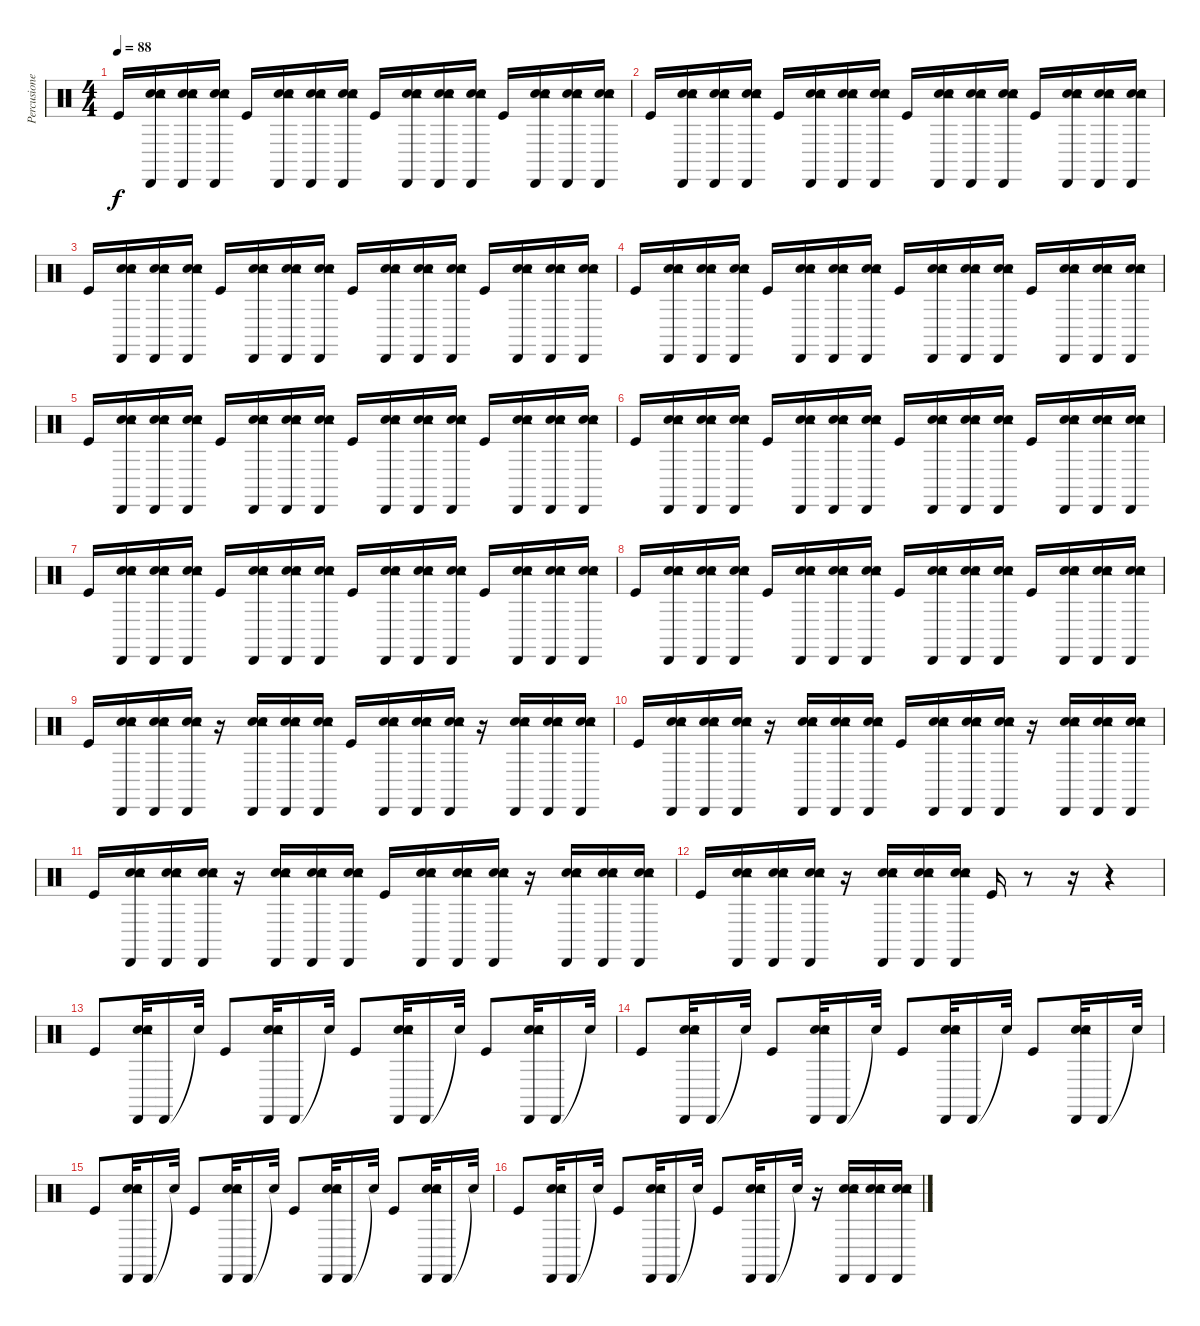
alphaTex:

\track ("Percusiones" "Percusione") {instrument percussion}
\staff {score}
\articulation defaults
\ts (4 4)
\tempo 88
\clef neutral
\ks c "Kick (hit)".16{dy f}
("Electric Snare (hit)" "Tambourine (hit)" "Snare (hit) 2" "Cabasa (hit)").16 ("Electric Snare (hit)" "Tambourine (hit)" "Snare (hit) 2" "Cabasa (hit)").16 ("Electric Snare (hit)" "Tambourine (hit)" "Snare (hit) 2" "Cabasa (hit)").16 "Kick (hit)".16 ("Electric Snare (hit)" "Tambourine (hit)" "Snare (hit) 2" "Cabasa (hit)").16 ("Electric Snare (hit)" "Tambourine (hit)" "Snare (hit) 2" "Cabasa (hit)").16 ("Electric Snare (hit)" "Tambourine (hit)" "Snare (hit) 2" "Cabasa (hit)").16 "Kick (hit)".16 ("Electric Snare (hit)" "Tambourine (hit)" "Snare (hit) 2" "Cabasa (hit)").16 ("Electric Snare (hit)" "Tambourine (hit)" "Snare (hit) 2" "Cabasa (hit)").16 ("Electric Snare (hit)" "Tambourine (hit)" "Snare (hit) 2" "Cabasa (hit)").16 "Kick (hit)".16 ("Electric Snare (hit)" "Tambourine (hit)" "Snare (hit) 2" "Cabasa (hit)").16 ("Electric Snare (hit)" "Tambourine (hit)" "Snare (hit) 2" "Cabasa (hit)").16 ("Electric Snare (hit)" "Tambourine (hit)" "Snare (hit) 2" "Cabasa (hit)").16 |
"Kick (hit)".16 ("Electric Snare (hit)" "Tambourine (hit)" "Snare (hit) 2" "Cabasa (hit)").16 ("Electric Snare (hit)" "Tambourine (hit)" "Snare (hit) 2" "Cabasa (hit)").16 ("Electric Snare (hit)" "Tambourine (hit)" "Snare (hit) 2" "Cabasa (hit)").16 "Kick (hit)".16 ("Electric Snare (hit)" "Tambourine (hit)" "Snare (hit) 2" "Cabasa (hit)").16 ("Electric Snare (hit)" "Tambourine (hit)" "Snare (hit) 2" "Cabasa (hit)").16 ("Electric Snare (hit)" "Tambourine (hit)" "Snare (hit) 2" "Cabasa (hit)").16 "Kick (hit)".16 ("Electric Snare (hit)" "Tambourine (hit)" "Snare (hit) 2" "Cabasa (hit)").16 ("Electric Snare (hit)" "Tambourine (hit)" "Snare (hit) 2" "Cabasa (hit)").16 ("Electric Snare (hit)" "Tambourine (hit)" "Snare (hit) 2" "Cabasa (hit)").16 "Kick (hit)".16 ("Electric Snare (hit)" "Tambourine (hit)" "Snare (hit) 2" "Cabasa (hit)").16 ("Electric Snare (hit)" "Tambourine (hit)" "Snare (hit) 2" "Cabasa (hit)").16 ("Electric Snare (hit)" "Tambourine (hit)" "Snare (hit) 2" "Cabasa (hit)").16 |
"Kick (hit)".16 ("Electric Snare (hit)" "Tambourine (hit)" "Snare (hit) 2" "Cabasa (hit)").16 ("Electric Snare (hit)" "Tambourine (hit)" "Snare (hit) 2" "Cabasa (hit)").16 ("Electric Snare (hit)" "Tambourine (hit)" "Snare (hit) 2" "Cabasa (hit)").16 "Kick (hit)".16 ("Electric Snare (hit)" "Tambourine (hit)" "Snare (hit) 2" "Cabasa (hit)").16 ("Electric Snare (hit)" "Tambourine (hit)" "Snare (hit) 2" "Cabasa (hit)").16 ("Electric Snare (hit)" "Tambourine (hit)" "Snare (hit) 2" "Cabasa (hit)").16 "Kick (hit)".16 ("Electric Snare (hit)" "Tambourine (hit)" "Snare (hit) 2" "Cabasa (hit)").16 ("Electric Snare (hit)" "Tambourine (hit)" "Snare (hit) 2" "Cabasa (hit)").16 ("Electric Snare (hit)" "Tambourine (hit)" "Snare (hit) 2" "Cabasa (hit)").16 "Kick (hit)".16 ("Electric Snare (hit)" "Tambourine (hit)" "Snare (hit) 2" "Cabasa (hit)").16 ("Electric Snare (hit)" "Tambourine (hit)" "Snare (hit) 2" "Cabasa (hit)").16 ("Electric Snare (hit)" "Tambourine (hit)" "Snare (hit) 2" "Cabasa (hit)").16 |
"Kick (hit)".16 ("Electric Snare (hit)" "Tambourine (hit)" "Snare (hit) 2" "Cabasa (hit)").16 ("Electric Snare (hit)" "Tambourine (hit)" "Snare (hit) 2" "Cabasa (hit)").16 ("Electric Snare (hit)" "Tambourine (hit)" "Snare (hit) 2" "Cabasa (hit)").16 "Kick (hit)".16 ("Electric Snare (hit)" "Tambourine (hit)" "Snare (hit) 2" "Cabasa (hit)").16 ("Electric Snare (hit)" "Tambourine (hit)" "Snare (hit) 2" "Cabasa (hit)").16 ("Electric Snare (hit)" "Tambourine (hit)" "Snare (hit) 2" "Cabasa (hit)").16 "Kick (hit)".16 ("Electric Snare (hit)" "Tambourine (hit)" "Snare (hit) 2" "Cabasa (hit)").16 ("Electric Snare (hit)" "Tambourine (hit)" "Snare (hit) 2" "Cabasa (hit)").16 ("Electric Snare (hit)" "Tambourine (hit)" "Snare (hit) 2" "Cabasa (hit)").16 "Kick (hit)".16 ("Electric Snare (hit)" "Tambourine (hit)" "Snare (hit) 2" "Cabasa (hit)").16 ("Electric Snare (hit)" "Tambourine (hit)" "Snare (hit) 2" "Cabasa (hit)").16 ("Electric Snare (hit)" "Tambourine (hit)" "Snare (hit) 2" "Cabasa (hit)").16 |
"Kick (hit)".16 ("Electric Snare (hit)" "Tambourine (hit)" "Snare (hit) 2" "Cabasa (hit)").16 ("Electric Snare (hit)" "Tambourine (hit)" "Snare (hit) 2" "Cabasa (hit)").16 ("Electric Snare (hit)" "Tambourine (hit)" "Snare (hit) 2" "Cabasa (hit)").16 "Kick (hit)".16 ("Electric Snare (hit)" "Tambourine (hit)" "Snare (hit) 2" "Cabasa (hit)").16 ("Electric Snare (hit)" "Tambourine (hit)" "Snare (hit) 2" "Cabasa (hit)").16 ("Electric Snare (hit)" "Tambourine (hit)" "Snare (hit) 2" "Cabasa (hit)").16 "Kick (hit)".16 ("Electric Snare (hit)" "Tambourine (hit)" "Snare (hit) 2" "Cabasa (hit)").16 ("Electric Snare (hit)" "Tambourine (hit)" "Snare (hit) 2" "Cabasa (hit)").16 ("Electric Snare (hit)" "Tambourine (hit)" "Snare (hit) 2" "Cabasa (hit)").16 "Kick (hit)".16 ("Electric Snare (hit)" "Tambourine (hit)" "Snare (hit) 2" "Cabasa (hit)").16 ("Electric Snare (hit)" "Tambourine (hit)" "Snare (hit) 2" "Cabasa (hit)").16 ("Electric Snare (hit)" "Tambourine (hit)" "Snare (hit) 2" "Cabasa (hit)").16 |
"Kick (hit)".16 ("Electric Snare (hit)" "Tambourine (hit)" "Snare (hit) 2" "Cabasa (hit)").16 ("Electric Snare (hit)" "Tambourine (hit)" "Snare (hit) 2" "Cabasa (hit)").16 ("Electric Snare (hit)" "Tambourine (hit)" "Snare (hit) 2" "Cabasa (hit)").16 "Kick (hit)".16 ("Electric Snare (hit)" "Tambourine (hit)" "Snare (hit) 2" "Cabasa (hit)").16 ("Electric Snare (hit)" "Tambourine (hit)" "Snare (hit) 2" "Cabasa (hit)").16 ("Electric Snare (hit)" "Tambourine (hit)" "Snare (hit) 2" "Cabasa (hit)").16 "Kick (hit)".16 ("Electric Snare (hit)" "Tambourine (hit)" "Snare (hit) 2" "Cabasa (hit)").16 ("Electric Snare (hit)" "Tambourine (hit)" "Snare (hit) 2" "Cabasa (hit)").16 ("Electric Snare (hit)" "Tambourine (hit)" "Snare (hit) 2" "Cabasa (hit)").16 "Kick (hit)".16 ("Electric Snare (hit)" "Tambourine (hit)" "Snare (hit) 2" "Cabasa (hit)").16 ("Electric Snare (hit)" "Tambourine (hit)" "Snare (hit) 2" "Cabasa (hit)").16 ("Electric Snare (hit)" "Tambourine (hit)" "Snare (hit) 2" "Cabasa (hit)").16 |
"Kick (hit)".16 ("Electric Snare (hit)" "Tambourine (hit)" "Snare (hit) 2" "Cabasa (hit)").16 ("Electric Snare (hit)" "Tambourine (hit)" "Snare (hit) 2" "Cabasa (hit)").16 ("Electric Snare (hit)" "Tambourine (hit)" "Snare (hit) 2" "Cabasa (hit)").16 "Kick (hit)".16 ("Electric Snare (hit)" "Tambourine (hit)" "Snare (hit) 2" "Cabasa (hit)").16 ("Electric Snare (hit)" "Tambourine (hit)" "Snare (hit) 2" "Cabasa (hit)").16 ("Electric Snare (hit)" "Tambourine (hit)" "Snare (hit) 2" "Cabasa (hit)").16 "Kick (hit)".16 ("Electric Snare (hit)" "Tambourine (hit)" "Snare (hit) 2" "Cabasa (hit)").16 ("Electric Snare (hit)" "Tambourine (hit)" "Snare (hit) 2" "Cabasa (hit)").16 ("Electric Snare (hit)" "Tambourine (hit)" "Snare (hit) 2" "Cabasa (hit)").16 "Kick (hit)".16 ("Electric Snare (hit)" "Tambourine (hit)" "Snare (hit) 2" "Cabasa (hit)").16 ("Electric Snare (hit)" "Tambourine (hit)" "Snare (hit) 2" "Cabasa (hit)").16 ("Electric Snare (hit)" "Tambourine (hit)" "Snare (hit) 2" "Cabasa (hit)").16 |
"Kick (hit)".16 ("Electric Snare (hit)" "Tambourine (hit)" "Snare (hit) 2" "Cabasa (hit)").16 ("Electric Snare (hit)" "Tambourine (hit)" "Snare (hit) 2" "Cabasa (hit)").16 ("Electric Snare (hit)" "Tambourine (hit)" "Snare (hit) 2" "Cabasa (hit)").16 "Kick (hit)".16 ("Electric Snare (hit)" "Tambourine (hit)" "Snare (hit) 2" "Cabasa (hit)").16 ("Electric Snare (hit)" "Tambourine (hit)" "Snare (hit) 2" "Cabasa (hit)").16 ("Electric Snare (hit)" "Tambourine (hit)" "Snare (hit) 2" "Cabasa (hit)").16 "Kick (hit)".16 ("Electric Snare (hit)" "Tambourine (hit)" "Snare (hit) 2" "Cabasa (hit)").16 ("Electric Snare (hit)" "Tambourine (hit)" "Snare (hit) 2" "Cabasa (hit)").16 ("Electric Snare (hit)" "Tambourine (hit)" "Snare (hit) 2" "Cabasa (hit)").16 "Kick (hit)".16 ("Electric Snare (hit)" "Tambourine (hit)" "Snare (hit) 2" "Cabasa (hit)").16 ("Electric Snare (hit)" "Tambourine (hit)" "Snare (hit) 2" "Cabasa (hit)").16 ("Electric Snare (hit)" "Tambourine (hit)" "Snare (hit) 2" "Cabasa (hit)").16 |
"Kick (hit)".16 ("Electric Snare (hit)" "Tambourine (hit)" "Snare (hit) 2" "Cabasa (hit)").16 ("Electric Snare (hit)" "Tambourine (hit)" "Snare (hit) 2" "Cabasa (hit)").16 ("Electric Snare (hit)" "Tambourine (hit)" "Snare (hit) 2" "Cabasa (hit)").16 r.16 ("Electric Snare (hit)" "Tambourine (hit)" "Snare (hit) 2" "Cabasa (hit)").16 ("Electric Snare (hit)" "Tambourine (hit)" "Snare (hit) 2" "Cabasa (hit)").16 ("Electric Snare (hit)" "Tambourine (hit)" "Snare (hit) 2" "Cabasa (hit)").16 "Kick (hit)".16 ("Electric Snare (hit)" "Tambourine (hit)" "Snare (hit) 2" "Cabasa (hit)").16 ("Electric Snare (hit)" "Tambourine (hit)" "Snare (hit) 2" "Cabasa (hit)").16 ("Electric Snare (hit)" "Tambourine (hit)" "Snare (hit) 2" "Cabasa (hit)").16 r.16 ("Electric Snare (hit)" "Tambourine (hit)" "Snare (hit) 2" "Cabasa (hit)").16 ("Electric Snare (hit)" "Tambourine (hit)" "Snare (hit) 2" "Cabasa (hit)").16 ("Electric Snare (hit)" "Tambourine (hit)" "Snare (hit) 2" "Cabasa (hit)").16 |
"Kick (hit)".16 ("Electric Snare (hit)" "Tambourine (hit)" "Snare (hit) 2" "Cabasa (hit)").16 ("Electric Snare (hit)" "Tambourine (hit)" "Snare (hit) 2" "Cabasa (hit)").16 ("Electric Snare (hit)" "Tambourine (hit)" "Snare (hit) 2" "Cabasa (hit)").16 r.16 ("Electric Snare (hit)" "Tambourine (hit)" "Snare (hit) 2" "Cabasa (hit)").16 ("Electric Snare (hit)" "Tambourine (hit)" "Snare (hit) 2" "Cabasa (hit)").16 ("Electric Snare (hit)" "Tambourine (hit)" "Snare (hit) 2" "Cabasa (hit)").16 "Kick (hit)".16 ("Electric Snare (hit)" "Tambourine (hit)" "Snare (hit) 2" "Cabasa (hit)").16 ("Electric Snare (hit)" "Tambourine (hit)" "Snare (hit) 2" "Cabasa (hit)").16 ("Electric Snare (hit)" "Tambourine (hit)" "Snare (hit) 2" "Cabasa (hit)").16 r.16 ("Electric Snare (hit)" "Tambourine (hit)" "Snare (hit) 2" "Cabasa (hit)").16 ("Electric Snare (hit)" "Tambourine (hit)" "Snare (hit) 2" "Cabasa (hit)").16 ("Electric Snare (hit)" "Tambourine (hit)" "Snare (hit) 2" "Cabasa (hit)").16 |
"Kick (hit)".16 ("Electric Snare (hit)" "Tambourine (hit)" "Snare (hit) 2" "Cabasa (hit)").16 ("Electric Snare (hit)" "Tambourine (hit)" "Snare (hit) 2" "Cabasa (hit)").16 ("Electric Snare (hit)" "Tambourine (hit)" "Snare (hit) 2" "Cabasa (hit)").16 r.16 ("Electric Snare (hit)" "Tambourine (hit)" "Snare (hit) 2" "Cabasa (hit)").16 ("Electric Snare (hit)" "Tambourine (hit)" "Snare (hit) 2" "Cabasa (hit)").16 ("Electric Snare (hit)" "Tambourine (hit)" "Snare (hit) 2" "Cabasa (hit)").16 "Kick (hit)".16 ("Electric Snare (hit)" "Tambourine (hit)" "Snare (hit) 2" "Cabasa (hit)").16 ("Electric Snare (hit)" "Tambourine (hit)" "Snare (hit) 2" "Cabasa (hit)").16 ("Electric Snare (hit)" "Tambourine (hit)" "Snare (hit) 2" "Cabasa (hit)").16 r.16 ("Electric Snare (hit)" "Tambourine (hit)" "Snare (hit) 2" "Cabasa (hit)").16 ("Electric Snare (hit)" "Tambourine (hit)" "Snare (hit) 2" "Cabasa (hit)").16 ("Electric Snare (hit)" "Tambourine (hit)" "Snare (hit) 2" "Cabasa (hit)").16 |
"Kick (hit)".16 ("Electric Snare (hit)" "Tambourine (hit)" "Snare (hit) 2" "Cabasa (hit)").16 ("Electric Snare (hit)" "Tambourine (hit)" "Snare (hit) 2" "Cabasa (hit)").16 ("Electric Snare (hit)" "Tambourine (hit)" "Snare (hit) 2" "Cabasa (hit)").16 r.16 ("Electric Snare (hit)" "Tambourine (hit)" "Snare (hit) 2" "Cabasa (hit)").16 ("Electric Snare (hit)" "Tambourine (hit)" "Snare (hit) 2" "Cabasa (hit)").16 ("Electric Snare (hit)" "Tambourine (hit)" "Snare (hit) 2" "Cabasa (hit)").16 "Kick (hit)".16 r.8 r.16 r.4 |
"Kick (hit)".8 ("Electric Snare (hit)" "Tambourine (hit)" "Snare (hit) 2" "Cabasa (hit)").32 "Cabasa (hit)".16 "Snare (hit)"{t}.32 "Kick (hit)".8 ("Electric Snare (hit)" "Tambourine (hit)" "Snare (hit) 2" "Cabasa (hit)").32 "Cabasa (hit)".16 "Snare (hit)"{t}.32 "Kick (hit)".8 ("Electric Snare (hit)" "Tambourine (hit)" "Snare (hit) 2" "Cabasa (hit)").32 "Cabasa (hit)".16 "Snare (hit)"{t}.32 "Kick (hit)".8 ("Electric Snare (hit)" "Tambourine (hit)" "Snare (hit) 2" "Cabasa (hit)").32 "Cabasa (hit)".16 "Snare (hit)"{t}.32 |
"Kick (hit)".8 ("Electric Snare (hit)" "Tambourine (hit)" "Snare (hit) 2" "Cabasa (hit)").32 "Cabasa (hit)".16 "Snare (hit)"{t}.32 "Kick (hit)".8 ("Electric Snare (hit)" "Tambourine (hit)" "Snare (hit) 2" "Cabasa (hit)").32 "Cabasa (hit)".16 "Snare (hit)"{t}.32 "Kick (hit)".8 ("Electric Snare (hit)" "Tambourine (hit)" "Snare (hit) 2" "Cabasa (hit)").32 "Cabasa (hit)".16 "Snare (hit)"{t}.32 "Kick (hit)".8 ("Electric Snare (hit)" "Tambourine (hit)" "Snare (hit) 2" "Cabasa (hit)").32 "Cabasa (hit)".16 "Snare (hit)"{t}.32 |
"Kick (hit)".8 ("Electric Snare (hit)" "Tambourine (hit)" "Snare (hit) 2" "Cabasa (hit)").32 "Cabasa (hit)".16 "Snare (hit)"{t}.32 "Kick (hit)".8 ("Electric Snare (hit)" "Tambourine (hit)" "Snare (hit) 2" "Cabasa (hit)").32 "Cabasa (hit)".16 "Snare (hit)"{t}.32 "Kick (hit)".8 ("Electric Snare (hit)" "Tambourine (hit)" "Snare (hit) 2" "Cabasa (hit)").32 "Cabasa (hit)".16 "Snare (hit)"{t}.32 "Kick (hit)".8 ("Electric Snare (hit)" "Tambourine (hit)" "Snare (hit) 2" "Cabasa (hit)").32 "Cabasa (hit)".16 "Snare (hit)"{t}.32 |
"Kick (hit)".8 ("Electric Snare (hit)" "Tambourine (hit)" "Snare (hit) 2" "Cabasa (hit)").32 "Cabasa (hit)".16 "Snare (hit)"{t}.32 "Kick (hit)".8 ("Electric Snare (hit)" "Tambourine (hit)" "Snare (hit) 2" "Cabasa (hit)").32 "Cabasa (hit)".16 "Snare (hit)"{t}.32 "Kick (hit)".8 ("Electric Snare (hit)" "Tambourine (hit)" "Snare (hit) 2" "Cabasa (hit)").32 "Cabasa (hit)".16 "Snare (hit)"{t}.32 r.16 ("Electric Snare (hit)" "Tambourine (hit)" "Snare (hit) 2" "Cabasa (hit)").16 ("Electric Snare (hit)" "Tambourine (hit)" "Snare (hit) 2" "Cabasa (hit)").16 ("Electric Snare (hit)" "Tambourine (hit)" "Snare (hit) 2" "Cabasa (hit)").16
